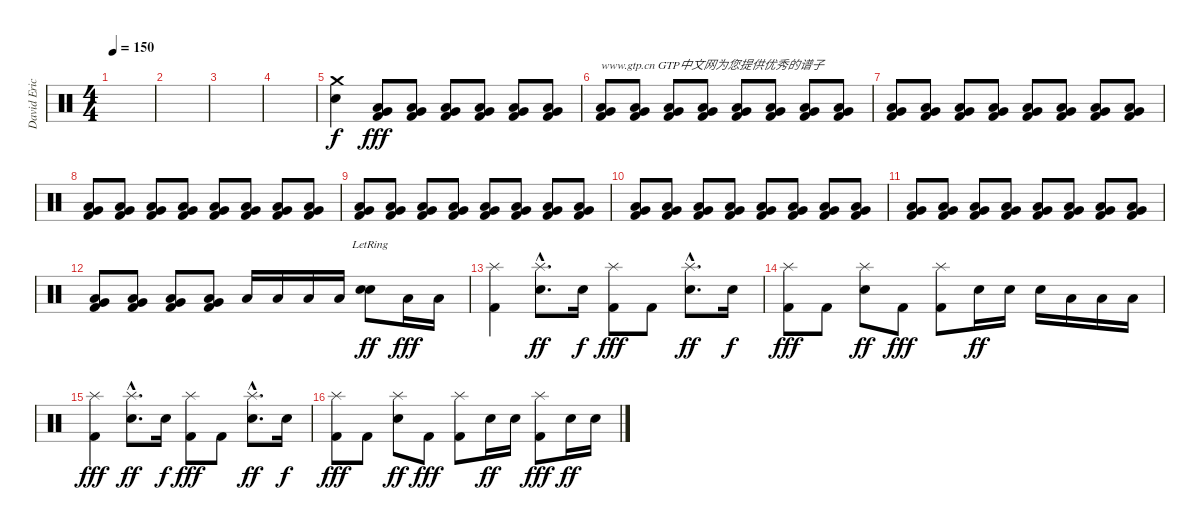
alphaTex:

\track ("David Eric Grohl" "David Eric") {instrument percussion}
\staff {score}
\articulation defaults
\ts (4 4)
\tempo 150
\clef neutral
\ks c
|
|
|
|
("Crash medium (hit)" "Electric Snare (hit)").4 ("Low Tom (hit)" "Very Low Tom (hit)" "Kick (hit) 2").8{dy fff} ("Low Tom (hit)" "Very Low Tom (hit)" "Kick (hit) 2").8 ("Low Tom (hit)" "Very Low Tom (hit)" "Kick (hit) 2").8 ("Low Tom (hit)" "Very Low Tom (hit)" "Kick (hit) 2").8 ("Low Tom (hit)" "Very Low Tom (hit)" "Kick (hit) 2").8 ("Low Tom (hit)" "Very Low Tom (hit)" "Kick (hit) 2").8 |
("Low Tom (hit)" "Very Low Tom (hit)" "Kick (hit) 2").8{txt "www.gtp.cn GTP中文网为您提供优秀的谱子"} ("Low Tom (hit)" "Very Low Tom (hit)" "Kick (hit) 2").8 ("Low Tom (hit)" "Very Low Tom (hit)" "Kick (hit) 2").8 ("Low Tom (hit)" "Very Low Tom (hit)" "Kick (hit) 2").8 ("Low Tom (hit)" "Very Low Tom (hit)" "Kick (hit) 2").8 ("Low Tom (hit)" "Very Low Tom (hit)" "Kick (hit) 2").8 ("Low Tom (hit)" "Very Low Tom (hit)" "Kick (hit) 2").8 ("Low Tom (hit)" "Very Low Tom (hit)" "Kick (hit) 2").8 |
("Low Tom (hit)" "Very Low Tom (hit)" "Kick (hit) 2").8 ("Low Tom (hit)" "Very Low Tom (hit)" "Kick (hit) 2").8 ("Low Tom (hit)" "Very Low Tom (hit)" "Kick (hit) 2").8 ("Low Tom (hit)" "Very Low Tom (hit)" "Kick (hit) 2").8 ("Low Tom (hit)" "Very Low Tom (hit)" "Kick (hit) 2").8 ("Low Tom (hit)" "Very Low Tom (hit)" "Kick (hit) 2").8 ("Low Tom (hit)" "Very Low Tom (hit)" "Kick (hit) 2").8 ("Low Tom (hit)" "Very Low Tom (hit)" "Kick (hit) 2").8 |
("Low Tom (hit)" "Very Low Tom (hit)" "Kick (hit) 2").8 ("Low Tom (hit)" "Very Low Tom (hit)" "Kick (hit) 2").8 ("Low Tom (hit)" "Very Low Tom (hit)" "Kick (hit) 2").8 ("Low Tom (hit)" "Very Low Tom (hit)" "Kick (hit) 2").8 ("Low Tom (hit)" "Very Low Tom (hit)" "Kick (hit) 2").8 ("Low Tom (hit)" "Very Low Tom (hit)" "Kick (hit) 2").8 ("Low Tom (hit)" "Very Low Tom (hit)" "Kick (hit) 2").8 ("Low Tom (hit)" "Very Low Tom (hit)" "Kick (hit) 2").8 |
("Low Tom (hit)" "Very Low Tom (hit)" "Kick (hit) 2").8 ("Low Tom (hit)" "Very Low Tom (hit)" "Kick (hit) 2").8 ("Low Tom (hit)" "Very Low Tom (hit)" "Kick (hit) 2").8 ("Low Tom (hit)" "Very Low Tom (hit)" "Kick (hit) 2").8 ("Low Tom (hit)" "Very Low Tom (hit)" "Kick (hit) 2").8 ("Low Tom (hit)" "Very Low Tom (hit)" "Kick (hit) 2").8 ("Low Tom (hit)" "Very Low Tom (hit)" "Kick (hit) 2").8 ("Low Tom (hit)" "Very Low Tom (hit)" "Kick (hit) 2").8 |
("Low Tom (hit)" "Very Low Tom (hit)" "Kick (hit) 2").8 ("Low Tom (hit)" "Very Low Tom (hit)" "Kick (hit) 2").8 ("Low Tom (hit)" "Very Low Tom (hit)" "Kick (hit) 2").8 ("Low Tom (hit)" "Very Low Tom (hit)" "Kick (hit) 2").8 ("Low Tom (hit)" "Very Low Tom (hit)" "Kick (hit) 2").8 ("Low Tom (hit)" "Very Low Tom (hit)" "Kick (hit) 2").8 ("Low Tom (hit)" "Very Low Tom (hit)" "Kick (hit) 2").8 ("Low Tom (hit)" "Very Low Tom (hit)" "Kick (hit) 2").8 |
("Low Tom (hit)" "Very Low Tom (hit)" "Kick (hit) 2").8 ("Low Tom (hit)" "Very Low Tom (hit)" "Kick (hit) 2").8 ("Low Tom (hit)" "Very Low Tom (hit)" "Kick (hit) 2").8 ("Low Tom (hit)" "Very Low Tom (hit)" "Kick (hit) 2").8 ("Low Tom (hit)" "Very Low Tom (hit)" "Kick (hit) 2").8 ("Low Tom (hit)" "Very Low Tom (hit)" "Kick (hit) 2").8 ("Low Tom (hit)" "Very Low Tom (hit)" "Kick (hit) 2").8 ("Low Tom (hit)" "Very Low Tom (hit)" "Kick (hit) 2").8 |
("Low Tom (hit)" "Very Low Tom (hit)" "Kick (hit) 2").8 ("Low Tom (hit)" "Very Low Tom (hit)" "Kick (hit) 2").8 ("Low Tom (hit)" "Very Low Tom (hit)" "Kick (hit) 2").8 ("Low Tom (hit)" "Very Low Tom (hit)" "Kick (hit) 2").8 "Low Tom (hit)".16 "Low Tom (hit)".16 "Low Tom (hit)".16 "Low Tom (hit)".16 ("Electric Snare (hit)"{lr} "Electric Snare (hit)"{lr}).8{dy ff} "Low Tom (hit)".16{dy fff} "Low Tom (hit)".16 |
("Splash (hit)" "Kick (hit) 2").4 ("Splash (hit)"{hac} "Electric Snare (hit)"{hac}).8{d dy ff} "Electric Snare (hit)".16{dy f} ("Splash (hit)" "Kick (hit) 2").8{dy fff} "Kick (hit) 2".8 ("Splash (hit)"{hac} "Electric Snare (hit)"{hac}).8{d dy ff} "Electric Snare (hit)".16{dy f} |
("Splash (hit)" "Kick (hit) 2").8{dy fff} "Kick (hit) 2".8 ("Splash (hit)" "Electric Snare (hit)").8{dy ff} "Kick (hit) 2".8{dy fff} ("Splash (hit)" "Kick (hit) 2").8 "Electric Snare (hit)".16{dy ff} "Electric Snare (hit)".16 "Electric Snare (hit)".16 "Low Tom (hit)".16 "Low Tom (hit)".16 "Low Tom (hit)".16 |
("Splash (hit)" "Kick (hit) 2").4{dy fff} ("Splash (hit)"{hac} "Electric Snare (hit)"{hac}).8{d dy ff} "Electric Snare (hit)".16{dy f} ("Splash (hit)" "Kick (hit) 2").8{dy fff} "Kick (hit) 2".8 ("Splash (hit)"{hac} "Electric Snare (hit)"{hac}).8{d dy ff} "Electric Snare (hit)".16{dy f} |
("Splash (hit)" "Kick (hit) 2").8{dy fff} "Kick (hit) 2".8 ("Splash (hit)" "Electric Snare (hit)").8{dy ff} "Kick (hit) 2".8{dy fff} ("Splash (hit)" "Kick (hit) 2").8 "Electric Snare (hit)".16{dy ff} "Electric Snare (hit)".16 ("Splash (hit)" "Kick (hit) 2").8{dy fff} "Electric Snare (hit)".16{dy ff} "Electric Snare (hit)".16
